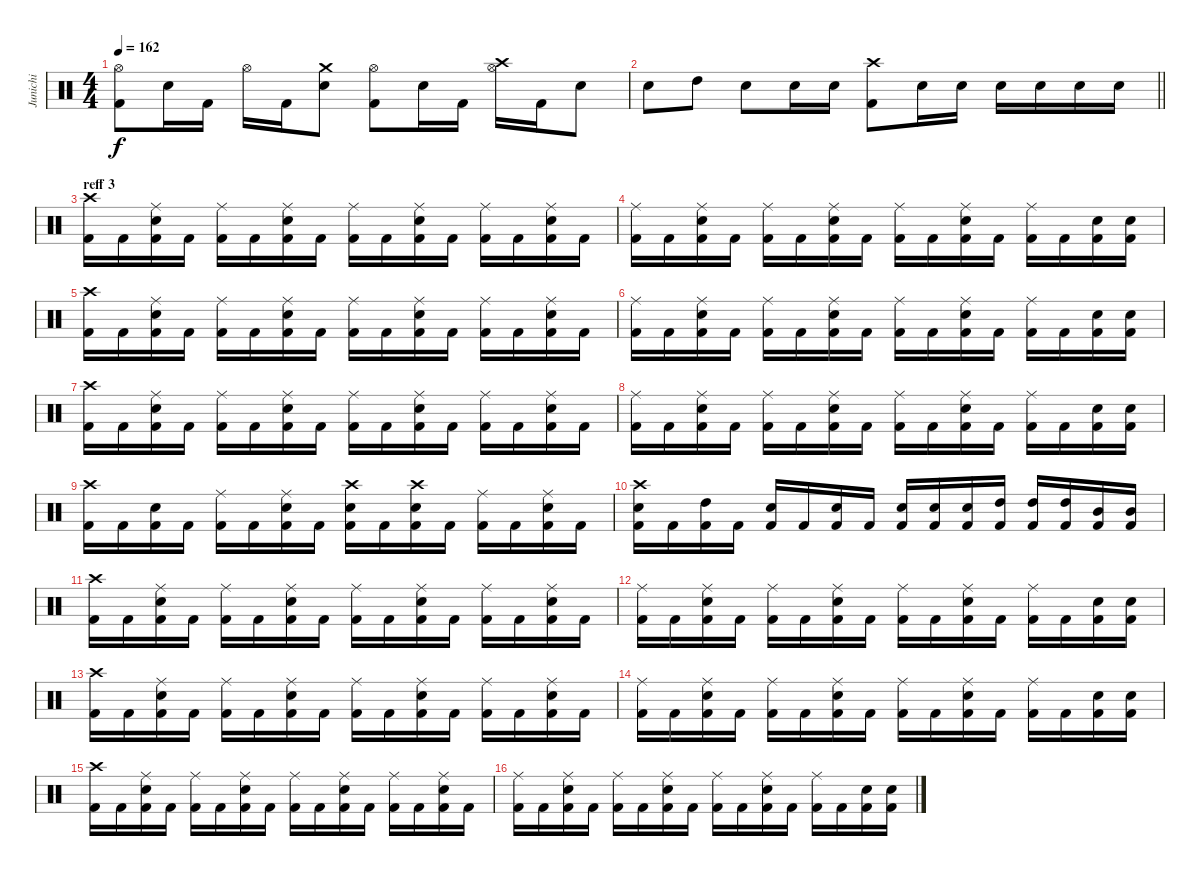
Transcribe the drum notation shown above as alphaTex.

\track ("Junichi" "Junichi") {instrument percussion}
\staff {score}
\articulation defaults
\ts (4 4)
\tempo 162
\clef neutral
\ks c
("Hi-Hat (open)" "Kick (hit) 2").8{dy f} "Electric Snare (hit)".16 "Kick (hit) 2".16 "Hi-Hat (open)".16 "Kick (hit) 2".16 ("Crash medium (hit)" "Electric Snare (hit)").8 ("Hi-Hat (open)" "Kick (hit) 2").8 "Electric Snare (hit)".16 "Kick (hit) 2".16 ("Crash high (hit)" "Hi-Hat (open)").16 "Kick (hit) 2".16 "Electric Snare (hit)".8 |
\barLineRight lightlight "Electric Snare (hit)".8 "High Tom (hit)".8 "Electric Snare (hit)".8 "Electric Snare (hit)".16 "Electric Snare (hit)".16
("Crash high (hit)" "Kick (hit) 2").8 "Electric Snare (hit)".16 "Electric Snare (hit)".16 "Electric Snare (hit)".16 "Electric Snare (hit)".16 "Electric Snare (hit)".16 "Electric Snare (hit)".16 |
\section ("" "reff 3")
("Crash high (hit)" "Kick (hit) 2").16 "Kick (hit) 2".16 ("Ride (middle)" "Electric Snare (hit)" "Kick (hit) 2").16 "Kick (hit) 2".16 ("Ride (middle)" "Kick (hit) 2").16 "Kick (hit) 2".16 ("Ride (middle)" "Electric Snare (hit)" "Kick (hit) 2").16 "Kick (hit) 2".16 ("Ride (middle)" "Kick (hit) 2").16 "Kick (hit) 2".16 ("Ride (middle)" "Electric Snare (hit)" "Kick (hit) 2").16 "Kick (hit) 2".16 ("Ride (middle)" "Kick (hit) 2").16 "Kick (hit) 2".16 ("Ride (middle)" "Electric Snare (hit)" "Kick (hit) 2").16 "Kick (hit) 2".16 |
("Ride (middle)" "Kick (hit) 2").16 "Kick (hit) 2".16 ("Ride (middle)" "Electric Snare (hit)" "Kick (hit) 2").16 "Kick (hit) 2".16 ("Ride (middle)" "Kick (hit) 2").16 "Kick (hit) 2".16 ("Ride (middle)" "Electric Snare (hit)" "Kick (hit) 2").16 "Kick (hit) 2".16 ("Ride (middle)" "Kick (hit) 2").16 "Kick (hit) 2".16 ("Ride (middle)" "Electric Snare (hit)" "Kick (hit) 2").16 "Kick (hit) 2".16 ("Ride (middle)" "Kick (hit) 2").16 "Kick (hit) 2".16 ("Electric Snare (hit)" "Kick (hit) 2").16 ("Electric Snare (hit)" "Kick (hit) 2").16 |
("Crash high (hit)" "Kick (hit) 2").16 "Kick (hit) 2".16 ("Ride (middle)" "Electric Snare (hit)" "Kick (hit) 2").16 "Kick (hit) 2".16 ("Ride (middle)" "Kick (hit) 2").16 "Kick (hit) 2".16 ("Ride (middle)" "Electric Snare (hit)" "Kick (hit) 2").16 "Kick (hit) 2".16 ("Ride (middle)" "Kick (hit) 2").16 "Kick (hit) 2".16 ("Ride (middle)" "Electric Snare (hit)" "Kick (hit) 2").16 "Kick (hit) 2".16 ("Ride (middle)" "Kick (hit) 2").16 "Kick (hit) 2".16 ("Ride (middle)" "Electric Snare (hit)" "Kick (hit) 2").16 "Kick (hit) 2".16 |
("Ride (middle)" "Kick (hit) 2").16 "Kick (hit) 2".16 ("Ride (middle)" "Electric Snare (hit)" "Kick (hit) 2").16 "Kick (hit) 2".16 ("Ride (middle)" "Kick (hit) 2").16 "Kick (hit) 2".16 ("Ride (middle)" "Electric Snare (hit)" "Kick (hit) 2").16 "Kick (hit) 2".16 ("Ride (middle)" "Kick (hit) 2").16 "Kick (hit) 2".16 ("Ride (middle)" "Electric Snare (hit)" "Kick (hit) 2").16 "Kick (hit) 2".16 ("Ride (middle)" "Kick (hit) 2").16 "Kick (hit) 2".16 ("Electric Snare (hit)" "Kick (hit) 2").16 ("Electric Snare (hit)" "Kick (hit) 2").16 |
("Crash high (hit)" "Kick (hit) 2").16 "Kick (hit) 2".16 ("Ride (middle)" "Electric Snare (hit)" "Kick (hit) 2").16 "Kick (hit) 2".16 ("Ride (middle)" "Kick (hit) 2").16 "Kick (hit) 2".16 ("Ride (middle)" "Electric Snare (hit)" "Kick (hit) 2").16 "Kick (hit) 2".16 ("Ride (middle)" "Kick (hit) 2").16 "Kick (hit) 2".16 ("Ride (middle)" "Electric Snare (hit)" "Kick (hit) 2").16 "Kick (hit) 2".16 ("Ride (middle)" "Kick (hit) 2").16 "Kick (hit) 2".16 ("Ride (middle)" "Electric Snare (hit)" "Kick (hit) 2").16 "Kick (hit) 2".16 |
("Ride (middle)" "Kick (hit) 2").16 "Kick (hit) 2".16 ("Ride (middle)" "Electric Snare (hit)" "Kick (hit) 2").16 "Kick (hit) 2".16 ("Ride (middle)" "Kick (hit) 2").16 "Kick (hit) 2".16 ("Ride (middle)" "Electric Snare (hit)" "Kick (hit) 2").16 "Kick (hit) 2".16 ("Ride (middle)" "Kick (hit) 2").16 "Kick (hit) 2".16 ("Ride (middle)" "Electric Snare (hit)" "Kick (hit) 2").16 "Kick (hit) 2".16 ("Ride (middle)" "Kick (hit) 2").16 "Kick (hit) 2".16 ("Electric Snare (hit)" "Kick (hit) 2").16 ("Electric Snare (hit)" "Kick (hit) 2").16 |
("Crash high (hit)" "Kick (hit) 2").16 "Kick (hit) 2".16 ("Electric Snare (hit)" "Kick (hit) 2").16 "Kick (hit) 2".16 ("Ride (middle)" "Kick (hit) 2").16 "Kick (hit) 2".16 ("Ride (middle)" "Electric Snare (hit)" "Kick (hit) 2").16 "Kick (hit) 2".16 ("Crash high (hit)" "Electric Snare (hit)" "Kick (hit) 2").16 "Kick (hit) 2".16 ("Crash high (hit)" "Electric Snare (hit)" "Kick (hit) 2").16 "Kick (hit) 2".16 ("Ride (middle)" "Kick (hit) 2").16 "Kick (hit) 2".16 ("Ride (middle)" "Electric Snare (hit)" "Kick (hit) 2").16 "Kick (hit) 2".16 |
("Crash high (hit)" "Electric Snare (hit)" "Kick (hit) 2").16 "Kick (hit) 2".16 ("High Tom (hit)" "Kick (hit) 2").16 "Kick (hit) 2".16 ("Electric Snare (hit)" "Kick (hit) 2").16 "Kick (hit) 2".16 ("Electric Snare (hit)" "Kick (hit) 2").16 "Kick (hit) 2".16 ("Electric Snare (hit)" "Kick (hit) 2").16 ("Electric Snare (hit)" "Kick (hit) 2").16 ("Electric Snare (hit)" "Kick (hit) 2").16 ("High Tom (hit)" "Kick (hit) 2").16 ("High Tom (hit)" "Kick (hit) 2").16 ("High Tom (hit)" "Kick (hit) 2").16 ("Mid Tom (hit)" "Kick (hit) 2").16 ("Mid Tom (hit)" "Kick (hit) 2").16 |
("Crash high (hit)" "Kick (hit) 2").16 "Kick (hit) 2".16 ("Ride (middle)" "Electric Snare (hit)" "Kick (hit) 2").16 "Kick (hit) 2".16 ("Ride (middle)" "Kick (hit) 2").16 "Kick (hit) 2".16 ("Ride (middle)" "Electric Snare (hit)" "Kick (hit) 2").16 "Kick (hit) 2".16 ("Ride (middle)" "Kick (hit) 2").16 "Kick (hit) 2".16 ("Ride (middle)" "Electric Snare (hit)" "Kick (hit) 2").16 "Kick (hit) 2".16 ("Ride (middle)" "Kick (hit) 2").16 "Kick (hit) 2".16 ("Ride (middle)" "Electric Snare (hit)" "Kick (hit) 2").16 "Kick (hit) 2".16 |
("Ride (middle)" "Kick (hit) 2").16 "Kick (hit) 2".16 ("Ride (middle)" "Electric Snare (hit)" "Kick (hit) 2").16 "Kick (hit) 2".16 ("Ride (middle)" "Kick (hit) 2").16 "Kick (hit) 2".16 ("Ride (middle)" "Electric Snare (hit)" "Kick (hit) 2").16 "Kick (hit) 2".16 ("Ride (middle)" "Kick (hit) 2").16 "Kick (hit) 2".16 ("Ride (middle)" "Electric Snare (hit)" "Kick (hit) 2").16 "Kick (hit) 2".16 ("Ride (middle)" "Kick (hit) 2").16 "Kick (hit) 2".16 ("Electric Snare (hit)" "Kick (hit) 2").16 ("Electric Snare (hit)" "Kick (hit) 2").16 |
("Crash high (hit)" "Kick (hit) 2").16 "Kick (hit) 2".16 ("Ride (middle)" "Electric Snare (hit)" "Kick (hit) 2").16 "Kick (hit) 2".16 ("Ride (middle)" "Kick (hit) 2").16 "Kick (hit) 2".16 ("Ride (middle)" "Electric Snare (hit)" "Kick (hit) 2").16 "Kick (hit) 2".16 ("Ride (middle)" "Kick (hit) 2").16 "Kick (hit) 2".16 ("Ride (middle)" "Electric Snare (hit)" "Kick (hit) 2").16 "Kick (hit) 2".16 ("Ride (middle)" "Kick (hit) 2").16 "Kick (hit) 2".16 ("Ride (middle)" "Electric Snare (hit)" "Kick (hit) 2").16 "Kick (hit) 2".16 |
("Ride (middle)" "Kick (hit) 2").16 "Kick (hit) 2".16 ("Ride (middle)" "Electric Snare (hit)" "Kick (hit) 2").16 "Kick (hit) 2".16 ("Ride (middle)" "Kick (hit) 2").16 "Kick (hit) 2".16 ("Ride (middle)" "Electric Snare (hit)" "Kick (hit) 2").16 "Kick (hit) 2".16 ("Ride (middle)" "Kick (hit) 2").16 "Kick (hit) 2".16 ("Ride (middle)" "Electric Snare (hit)" "Kick (hit) 2").16 "Kick (hit) 2".16 ("Ride (middle)" "Kick (hit) 2").16 "Kick (hit) 2".16 ("Electric Snare (hit)" "Kick (hit) 2").16 ("Electric Snare (hit)" "Kick (hit) 2").16 |
("Crash high (hit)" "Kick (hit) 2").16 "Kick (hit) 2".16 ("Ride (middle)" "Electric Snare (hit)" "Kick (hit) 2").16 "Kick (hit) 2".16 ("Ride (middle)" "Kick (hit) 2").16 "Kick (hit) 2".16 ("Ride (middle)" "Electric Snare (hit)" "Kick (hit) 2").16 "Kick (hit) 2".16 ("Ride (middle)" "Kick (hit) 2").16 "Kick (hit) 2".16 ("Ride (middle)" "Electric Snare (hit)" "Kick (hit) 2").16 "Kick (hit) 2".16 ("Ride (middle)" "Kick (hit) 2").16 "Kick (hit) 2".16 ("Ride (middle)" "Electric Snare (hit)" "Kick (hit) 2").16 "Kick (hit) 2".16 |
("Ride (middle)" "Kick (hit) 2").16 "Kick (hit) 2".16 ("Ride (middle)" "Electric Snare (hit)" "Kick (hit) 2").16 "Kick (hit) 2".16 ("Ride (middle)" "Kick (hit) 2").16 "Kick (hit) 2".16 ("Ride (middle)" "Electric Snare (hit)" "Kick (hit) 2").16 "Kick (hit) 2".16 ("Ride (middle)" "Kick (hit) 2").16 "Kick (hit) 2".16 ("Ride (middle)" "Electric Snare (hit)" "Kick (hit) 2").16 "Kick (hit) 2".16 ("Ride (middle)" "Kick (hit) 2").16 "Kick (hit) 2".16 ("Electric Snare (hit)" "Kick (hit) 2").16 ("Electric Snare (hit)" "Kick (hit) 2").16
